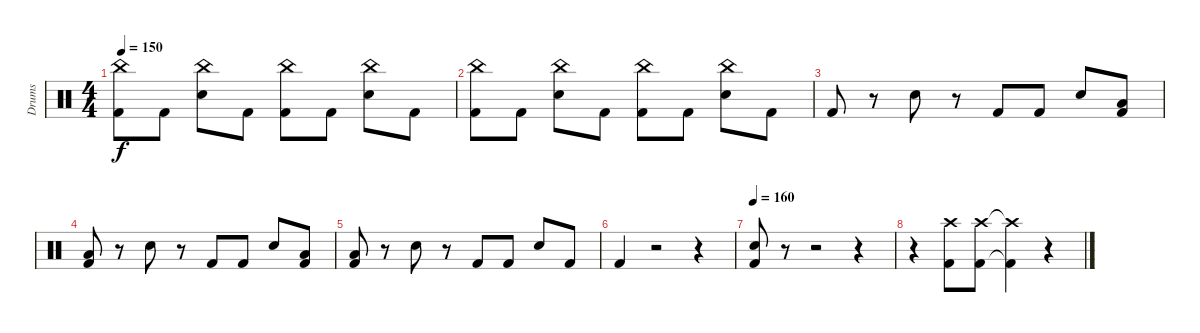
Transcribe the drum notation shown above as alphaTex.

\track ("Drums" "Drums") {instrument percussion}
\staff {score}
\articulation defaults
\ts (4 4)
\tempo 150
\clef neutral
\ks c
("China (hit)" "Kick (hit) 2").8{dy f} "Kick (hit) 2".8 ("China (hit)" "Snare (hit) 2").8 "Kick (hit) 2".8 ("China (hit)" "Kick (hit) 2").8 "Kick (hit) 2".8 ("China (hit)" "Snare (hit) 2").8 "Kick (hit) 2".8 |
("China (hit)" "Kick (hit) 2").8 "Kick (hit) 2".8 ("China (hit)" "Snare (hit) 2").8 "Kick (hit) 2".8 ("China (hit)" "Kick (hit) 2").8 "Kick (hit) 2".8 ("China (hit)" "Snare (hit) 2").8 "Kick (hit) 2".8 |
"Kick (hit) 2".8 r.8 "Snare (hit) 2".8 r.8 "Kick (hit) 2".8 "Kick (hit) 2".8 "Snare (hit) 2".8 ("Low Tom (hit)" "Kick (hit) 2").8 |
("Low Tom (hit)" "Kick (hit) 2").8 r.8 "Snare (hit) 2".8 r.8 "Kick (hit) 2".8 "Kick (hit) 2".8 "Snare (hit) 2".8 ("Low Tom (hit)" "Kick (hit) 2").8 |
("Low Tom (hit)" "Kick (hit) 2").8 r.8 "Snare (hit) 2".8 r.8 "Kick (hit) 2".8 "Kick (hit) 2".8 "Snare (hit) 2".8 "Kick (hit) 2".8 |
"Kick (hit) 2".4 r.2 r.4 |
\tempo 160
("Snare (hit) 2" "Kick (hit) 2").8 r.8 r.2 r.4 |
r.4 ("Crash high (hit)" "Kick (hit) 2").8 ("Crash high (hit)" "Kick (hit) 2").8 ("Crash high (hit)"{t} "Kick (hit) 2"{t}).4 r.4
